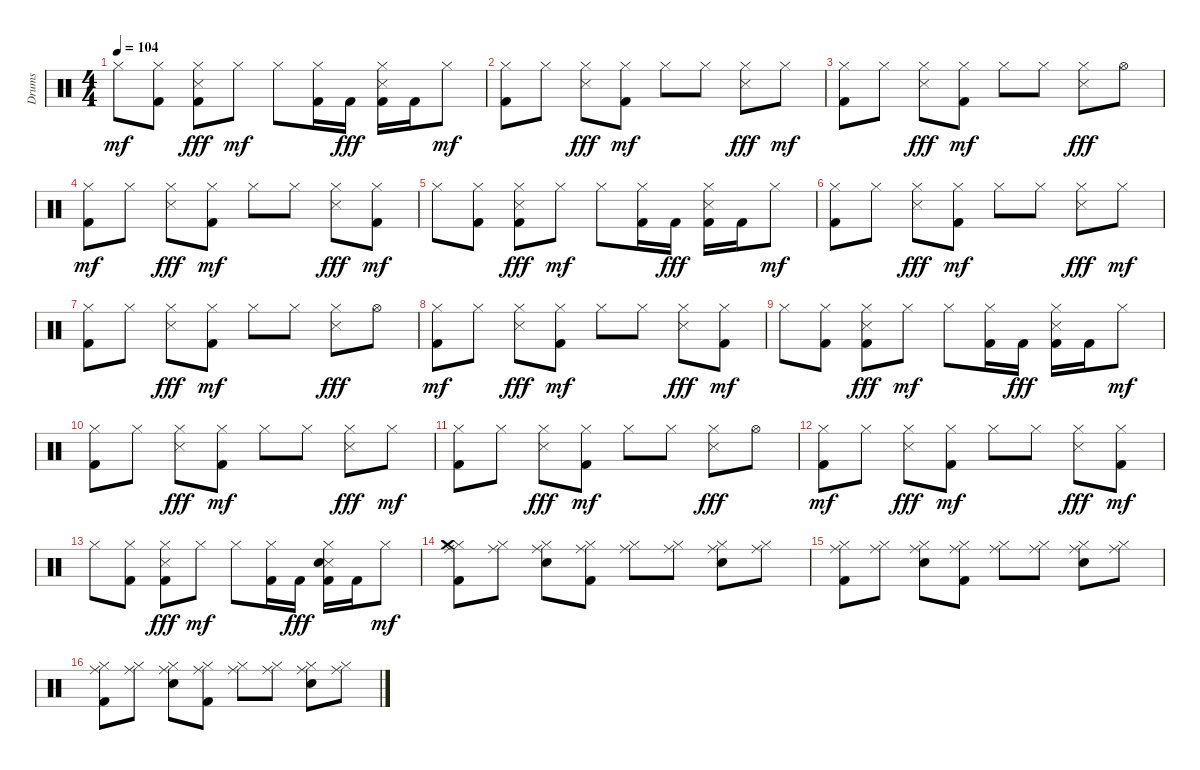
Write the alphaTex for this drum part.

\track ("Drums" "Drums") {instrument percussion}
\staff {score}
\articulation defaults
\ts (4 4)
\tempo 104
\clef neutral
\ks c "Hi-Hat (closed)".8{dy mf}
("Kick (hit) 2" "Hi-Hat (closed)").8 ("Kick (hit) 2" "Hi-Hat (closed)" "Metronome (hit)").8{dy fff} "Hi-Hat (closed)".8{dy mf} "Hi-Hat (closed)".8 ("Kick (hit) 2" "Hi-Hat (closed)").16 "Kick (hit) 2".16{dy fff} ("Kick (hit) 2" "Hi-Hat (closed)" "Metronome (hit)").16 "Kick (hit) 2".16 "Hi-Hat (closed)".8{dy mf} |
("Kick (hit) 2" "Hi-Hat (closed)").8 "Hi-Hat (closed)".8 ("Hi-Hat (closed)" "Metronome (hit)").8{dy fff} ("Kick (hit) 2" "Hi-Hat (closed)").8{dy mf} "Hi-Hat (closed)".8 "Hi-Hat (closed)".8 ("Hi-Hat (closed)" "Metronome (hit)").8{dy fff} "Hi-Hat (closed)".8{dy mf} |
("Kick (hit) 2" "Hi-Hat (closed)").8 "Hi-Hat (closed)".8 ("Hi-Hat (closed)" "Metronome (hit)").8{dy fff} ("Kick (hit) 2" "Hi-Hat (closed)").8{dy mf} "Hi-Hat (closed)".8 "Hi-Hat (closed)".8 ("Hi-Hat (closed)" "Metronome (hit)").8{dy fff} "Hi-Hat (open)".8 |
("Kick (hit) 2" "Hi-Hat (closed)").8{dy mf} "Hi-Hat (closed)".8 ("Hi-Hat (closed)" "Metronome (hit)").8{dy fff} ("Kick (hit) 2" "Hi-Hat (closed)").8{dy mf} "Hi-Hat (closed)".8 "Hi-Hat (closed)".8 ("Hi-Hat (closed)" "Metronome (hit)").8{dy fff} ("Kick (hit) 2" "Hi-Hat (closed)").8{dy mf} |
"Hi-Hat (closed)".8 ("Kick (hit) 2" "Hi-Hat (closed)").8 ("Kick (hit) 2" "Hi-Hat (closed)" "Metronome (hit)").8{dy fff} "Hi-Hat (closed)".8{dy mf} "Hi-Hat (closed)".8 ("Kick (hit) 2" "Hi-Hat (closed)").16 "Kick (hit) 2".16{dy fff} ("Kick (hit) 2" "Hi-Hat (closed)" "Metronome (hit)").16 "Kick (hit) 2".16 "Hi-Hat (closed)".8{dy mf} |
("Kick (hit) 2" "Hi-Hat (closed)").8 "Hi-Hat (closed)".8 ("Hi-Hat (closed)" "Metronome (hit)").8{dy fff} ("Kick (hit) 2" "Hi-Hat (closed)").8{dy mf} "Hi-Hat (closed)".8 "Hi-Hat (closed)".8 ("Hi-Hat (closed)" "Metronome (hit)").8{dy fff} "Hi-Hat (closed)".8{dy mf} |
("Kick (hit) 2" "Hi-Hat (closed)").8 "Hi-Hat (closed)".8 ("Hi-Hat (closed)" "Metronome (hit)").8{dy fff} ("Kick (hit) 2" "Hi-Hat (closed)").8{dy mf} "Hi-Hat (closed)".8 "Hi-Hat (closed)".8 ("Hi-Hat (closed)" "Metronome (hit)").8{dy fff} "Hi-Hat (open)".8 |
("Kick (hit) 2" "Hi-Hat (closed)").8{dy mf} "Hi-Hat (closed)".8 ("Hi-Hat (closed)" "Metronome (hit)").8{dy fff} ("Kick (hit) 2" "Hi-Hat (closed)").8{dy mf} "Hi-Hat (closed)".8 "Hi-Hat (closed)".8 ("Hi-Hat (closed)" "Metronome (hit)").8{dy fff} ("Kick (hit) 2" "Hi-Hat (closed)").8{dy mf} |
"Hi-Hat (closed)".8 ("Kick (hit) 2" "Hi-Hat (closed)").8 ("Kick (hit) 2" "Hi-Hat (closed)" "Metronome (hit)").8{dy fff} "Hi-Hat (closed)".8{dy mf} "Hi-Hat (closed)".8 ("Kick (hit) 2" "Hi-Hat (closed)").16 "Kick (hit) 2".16{dy fff} ("Kick (hit) 2" "Hi-Hat (closed)" "Metronome (hit)").16 "Kick (hit) 2".16 "Hi-Hat (closed)".8{dy mf} |
("Kick (hit) 2" "Hi-Hat (closed)").8 "Hi-Hat (closed)".8 ("Hi-Hat (closed)" "Metronome (hit)").8{dy fff} ("Kick (hit) 2" "Hi-Hat (closed)").8{dy mf} "Hi-Hat (closed)".8 "Hi-Hat (closed)".8 ("Hi-Hat (closed)" "Metronome (hit)").8{dy fff} "Hi-Hat (closed)".8{dy mf} |
("Kick (hit) 2" "Hi-Hat (closed)").8 "Hi-Hat (closed)".8 ("Hi-Hat (closed)" "Metronome (hit)").8{dy fff} ("Kick (hit) 2" "Hi-Hat (closed)").8{dy mf} "Hi-Hat (closed)".8 "Hi-Hat (closed)".8 ("Hi-Hat (closed)" "Metronome (hit)").8{dy fff} "Hi-Hat (open)".8 |
("Kick (hit) 2" "Hi-Hat (closed)").8{dy mf} "Hi-Hat (closed)".8 ("Hi-Hat (closed)" "Metronome (hit)").8{dy fff} ("Kick (hit) 2" "Hi-Hat (closed)").8{dy mf} "Hi-Hat (closed)".8 "Hi-Hat (closed)".8 ("Hi-Hat (closed)" "Metronome (hit)").8{dy fff} ("Kick (hit) 2" "Hi-Hat (closed)").8{dy mf} |
"Hi-Hat (closed)".8 ("Kick (hit) 2" "Hi-Hat (closed)").8 ("Kick (hit) 2" "Hi-Hat (closed)" "Metronome (hit)").8{dy fff} "Hi-Hat (closed)".8{dy mf} "Hi-Hat (closed)".8 ("Kick (hit) 2" "Hi-Hat (closed)").16 "Kick (hit) 2".16{dy fff} ("Kick (hit) 2" "Hi-Hat (closed)" "Metronome (hit)" "Snare (hit) 2").16 "Kick (hit) 2".16 "Hi-Hat (closed)".8{dy mf} |
("Kick (hit) 2" "Hi-Hat (closed)" "Crash medium (hit)" "Ride (middle)").8 ("Hi-Hat (closed)" "Ride (middle)").8 ("Snare (hit) 2" "Hi-Hat (closed)" "Ride (middle)").8 ("Kick (hit) 2" "Hi-Hat (closed)" "Ride (middle)").8 ("Hi-Hat (closed)" "Ride (middle)").8 ("Hi-Hat (closed)" "Ride (middle)").8 ("Snare (hit) 2" "Hi-Hat (closed)" "Ride (middle)").8 ("Hi-Hat (closed)" "Ride (middle)").8 |
("Kick (hit) 2" "Hi-Hat (closed)" "Ride (middle)").8 ("Hi-Hat (closed)" "Ride (middle)").8 ("Snare (hit) 2" "Hi-Hat (closed)" "Ride (middle)").8 ("Kick (hit) 2" "Hi-Hat (closed)" "Ride (middle)").8 ("Hi-Hat (closed)" "Ride (middle)").8 ("Hi-Hat (closed)" "Ride (middle)").8 ("Snare (hit) 2" "Hi-Hat (closed)" "Ride (middle)").8 ("Hi-Hat (closed)" "Ride (middle)").8 |
("Kick (hit) 2" "Hi-Hat (closed)" "Ride (middle)").8 ("Hi-Hat (closed)" "Ride (middle)").8 ("Snare (hit) 2" "Hi-Hat (closed)" "Ride (middle)").8 ("Kick (hit) 2" "Hi-Hat (closed)" "Ride (middle)").8 ("Hi-Hat (closed)" "Ride (middle)").8 ("Hi-Hat (closed)" "Ride (middle)").8 ("Snare (hit) 2" "Hi-Hat (closed)" "Ride (middle)").8 ("Hi-Hat (closed)" "Ride (middle)").8
